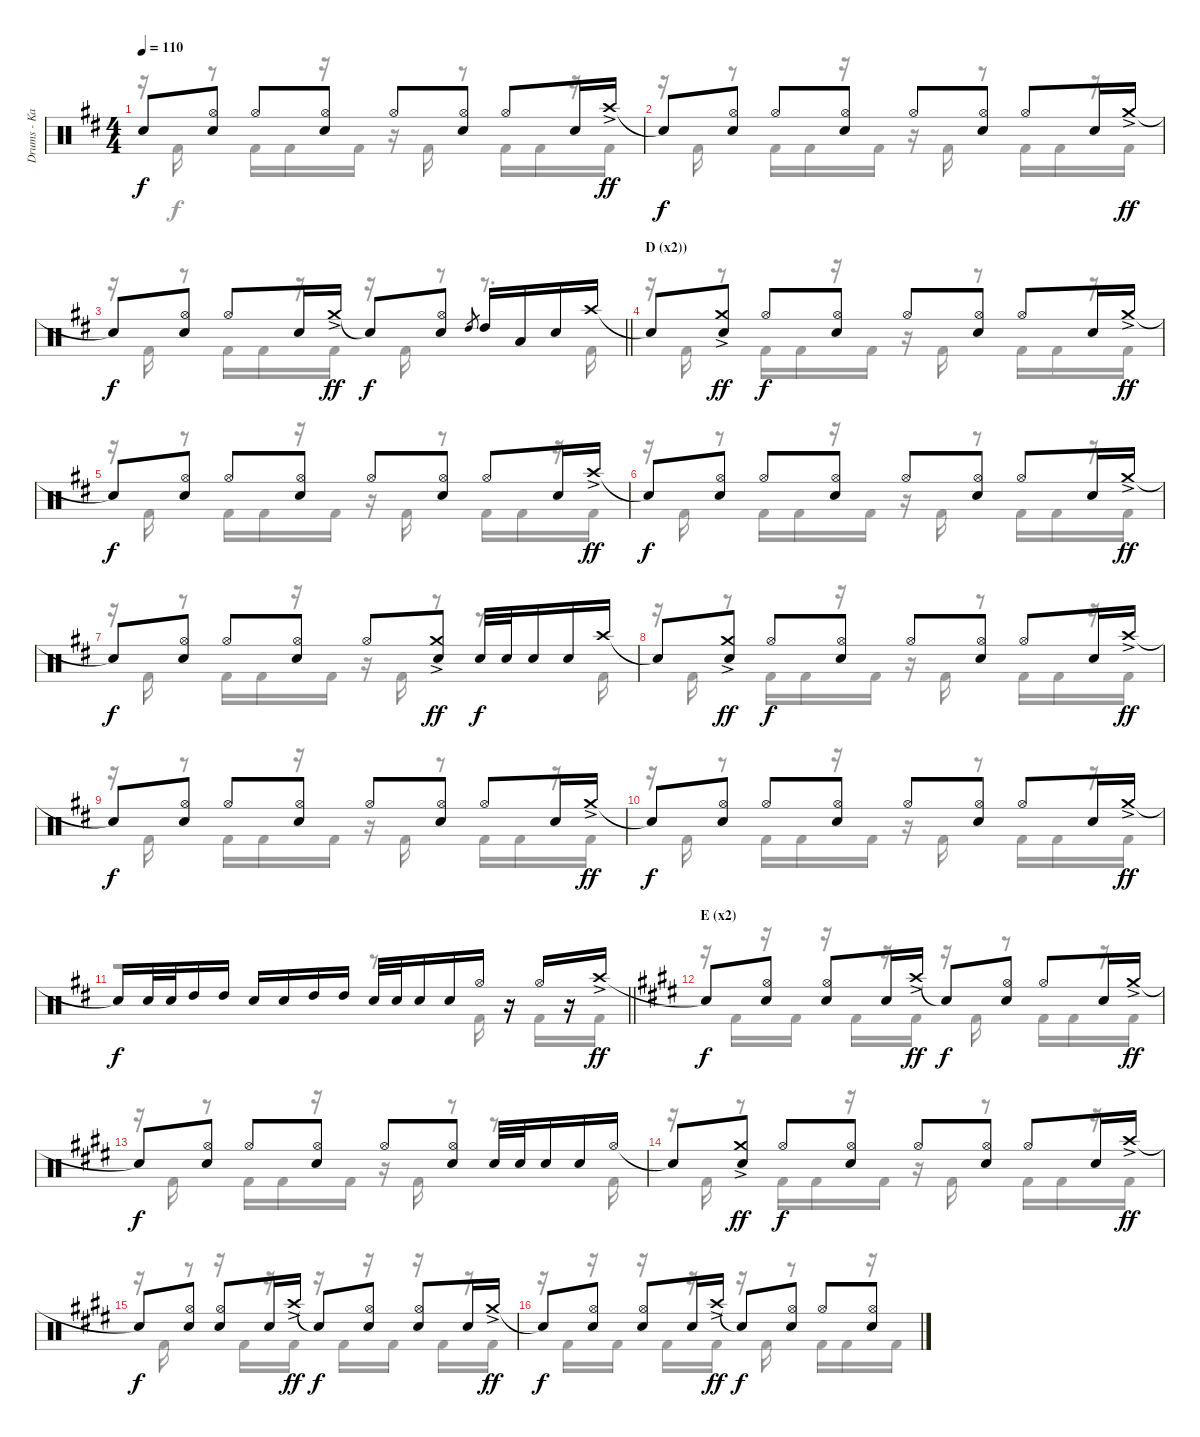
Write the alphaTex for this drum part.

\track ("Drums - Kai" "Drums - Ka") {instrument percussion}
\staff {score}
\articulation defaults
\voice
\ts (4 4)
\tempo 110
\clef neutral
\ks d "Snare (hit)"{t}.8{dy f}
("Hi-Hat (open)" "Snare (hit) 2").8 "Hi-Hat (open)".8 ("Hi-Hat (open)" "Snare (hit) 2").8 "Hi-Hat (open)".8 ("Hi-Hat (open)" "Snare (hit) 2").8 "Hi-Hat (open)".8 "Snare (hit) 2".16 "Crash high (hit)"{ac}.16{dy ff} |
"Snare (hit)"{t}.8{dy f} ("Hi-Hat (open)" "Snare (hit) 2").8 "Hi-Hat (open)".8 ("Hi-Hat (open)" "Snare (hit) 2").8 "Hi-Hat (open)".8 ("Hi-Hat (open)" "Snare (hit) 2").8 "Hi-Hat (open)".8 "Snare (hit) 2".16 "Crash medium (hit)"{ac}.16{dy ff} |
\barLineRight lightlight "Snare (hit)"{t}.8{dy f}
("Hi-Hat (open)" "Snare (hit) 2").8 "Hi-Hat (open)".8 "Snare (hit) 2".16 "Crash medium (hit)"{ac}.16{dy ff} "Snare (hit)"{t}.8{dy f} ("Hi-Hat (open)" "Snare (hit) 2").8 "High Tom (hit)".8{gr} "High Tom (hit)".16 "Low Tom (hit)".16 "Snare (hit) 2".16 "Crash high (hit)".16 |
\section ("" "D (x2))")
"Snare (hit)"{t}.8 ("Crash medium (hit)"{ac} "Snare (hit) 2").8{dy ff} "Hi-Hat (open)".8{dy f} ("Hi-Hat (open)" "Snare (hit) 2").8 "Hi-Hat (open)".8 ("Hi-Hat (open)" "Snare (hit) 2").8 "Hi-Hat (open)".8 "Snare (hit) 2".16 "Crash medium (hit)"{ac}.16{dy ff} |
"Snare (hit)"{t}.8{dy f} ("Hi-Hat (open)" "Snare (hit) 2").8 "Hi-Hat (open)".8 ("Hi-Hat (open)" "Snare (hit) 2").8 "Hi-Hat (open)".8 ("Hi-Hat (open)" "Snare (hit) 2").8 "Hi-Hat (open)".8 "Snare (hit) 2".16 "Crash high (hit)"{ac}.16{dy ff} |
"Snare (hit)"{t}.8{dy f} ("Hi-Hat (open)" "Snare (hit) 2").8 "Hi-Hat (open)".8 ("Hi-Hat (open)" "Snare (hit) 2").8 "Hi-Hat (open)".8 ("Hi-Hat (open)" "Snare (hit) 2").8 "Hi-Hat (open)".8 "Snare (hit) 2".16 "Crash medium (hit)"{ac}.16{dy ff} |
"Snare (hit)"{t}.8{dy f} ("Hi-Hat (open)" "Snare (hit) 2").8 "Hi-Hat (open)".8 ("Hi-Hat (open)" "Snare (hit) 2").8 "Hi-Hat (open)".8 ("Crash medium (hit)"{ac} "Snare (hit) 2").8{dy ff} "Snare (hit) 2".32{dy f} "Snare (hit) 2".32 "Snare (hit) 2".16 "Snare (hit) 2".16 "Crash high (hit)".16 |
"Snare (hit)"{t}.8 ("Crash medium (hit)"{ac} "Snare (hit) 2").8{dy ff} "Hi-Hat (open)".8{dy f} ("Hi-Hat (open)" "Snare (hit) 2").8 "Hi-Hat (open)".8 ("Hi-Hat (open)" "Snare (hit) 2").8 "Hi-Hat (open)".8 "Snare (hit) 2".16 "Crash high (hit)"{ac}.16{dy ff} |
"Snare (hit)"{t}.8{dy f} ("Hi-Hat (open)" "Snare (hit) 2").8 "Hi-Hat (open)".8 ("Hi-Hat (open)" "Snare (hit) 2").8 "Hi-Hat (open)".8 ("Hi-Hat (open)" "Snare (hit) 2").8 "Hi-Hat (open)".8 "Snare (hit) 2".16 "Crash medium (hit)"{ac}.16{dy ff} |
"Snare (hit)"{t}.8{dy f} ("Hi-Hat (open)" "Snare (hit) 2").8 "Hi-Hat (open)".8 ("Hi-Hat (open)" "Snare (hit) 2").8 "Hi-Hat (open)".8 ("Hi-Hat (open)" "Snare (hit) 2").8 "Hi-Hat (open)".8 "Snare (hit) 2".16 "Crash medium (hit)"{ac}.16{dy ff} |
\barLineRight lightlight "Snare (hit)"{t}.16{dy f} "Snare (hit) 2".32 "Snare (hit) 2".32 "High Tom (hit)".16 "High Tom (hit)".16 "Snare (hit) 2".16 "Snare (hit) 2".16 "High Tom (hit)".16 "High Tom (hit)".16 "Snare (hit) 2".32 "Snare (hit) 2".32 "Snare (hit) 2".16 "Snare (hit) 2".16 "Hi-Hat (open)".16
r.16 "Hi-Hat (open)".16 r.16 "Crash high (hit)"{ac}.16{dy ff} |
\section ("" "E (x2)")
\ks e "Snare (hit)"{t}.8{dy f}
("Hi-Hat (open)" "Snare (hit) 2").8 ("Hi-Hat (open)" "Snare (hit) 2").8 "Snare (hit) 2".16 "Crash high (hit)"{ac}.16{dy ff} "Snare (hit)"{t}.8{dy f} ("Hi-Hat (open)" "Snare (hit) 2").8 "Hi-Hat (open)".8 "Snare (hit) 2".16 "Crash medium (hit)"{ac}.16{dy ff} |
"Snare (hit)"{t}.8{dy f} ("Hi-Hat (open)" "Snare (hit) 2").8 "Hi-Hat (open)".8 ("Hi-Hat (open)" "Snare (hit) 2").8 "Hi-Hat (open)".8 ("Hi-Hat (open)" "Snare (hit) 2").8 "Snare (hit) 2".32 "Snare (hit) 2".32 "Snare (hit) 2".16 "Snare (hit) 2".16 "Hi-Hat (open)".16 |
"Snare (hit)"{t}.8 ("Crash medium (hit)"{ac} "Snare (hit) 2").8{dy ff} "Hi-Hat (open)".8{dy f} ("Hi-Hat (open)" "Snare (hit) 2").8 "Hi-Hat (open)".8 ("Hi-Hat (open)" "Snare (hit) 2").8 "Hi-Hat (open)".8 "Snare (hit) 2".16 "Crash high (hit)"{ac}.16{dy ff} |
"Snare (hit)"{t}.8{dy f} ("Hi-Hat (open)" "Snare (hit) 2").8 ("Hi-Hat (open)" "Snare (hit) 2").8 "Snare (hit) 2".16 "Crash high (hit)"{ac}.16{dy ff} "Snare (hit)"{t}.8{dy f} ("Hi-Hat (open)" "Snare (hit) 2").8 ("Hi-Hat (open)" "Snare (hit) 2").8 "Snare (hit) 2".16 "Crash medium (hit)"{ac}.16{dy ff} |
"Snare (hit)"{t}.8{dy f} ("Hi-Hat (open)" "Snare (hit) 2").8 ("Hi-Hat (open)" "Snare (hit) 2").8 "Snare (hit) 2".16 "Crash high (hit)"{ac}.16{dy ff} "Snare (hit)"{t}.8{dy f} ("Hi-Hat (open)" "Snare (hit) 2").8 "Hi-Hat (open)".8 ("Hi-Hat (open)" "Snare (hit) 2").8
\voice
\clef neutral
\ottava regular
\simile none
\ks d
r.16{dy f} "Kick (hit) 2".16 r.8 "Kick (hit) 2".16 "Kick (hit) 2".16 r.16 "Kick (hit) 2".16 r.16 "Kick (hit) 2".16 r.8 "Kick (hit) 2".16 "Kick (hit) 2".16 r.16 "Kick (hit) 2".16 |
r.16 "Kick (hit) 2".16 r.8 "Kick (hit) 2".16 "Kick (hit) 2".16 r.16 "Kick (hit) 2".16 r.16 "Kick (hit) 2".16 r.8 "Kick (hit) 2".16 "Kick (hit) 2".16 r.16 "Kick (hit) 2".16 |
\barLineRight lightlight
r.16 "Kick (hit) 2".16 r.8 "Kick (hit) 2".16 "Kick (hit) 2".16 r.16 "Kick (hit) 2".16 r.16 "Kick (hit) 2".16 r.8 r.8{d} "Kick (hit) 2".16 |
r.16 "Kick (hit) 2".16 r.8 "Kick (hit) 2".16 "Kick (hit) 2".16 r.16 "Kick (hit) 2".16 r.16 "Kick (hit) 2".16 r.8 "Kick (hit) 2".16 "Kick (hit) 2".16 r.16 "Kick (hit) 2".16 |
r.16 "Kick (hit) 2".16 r.8 "Kick (hit) 2".16 "Kick (hit) 2".16 r.16 "Kick (hit) 2".16 r.16 "Kick (hit) 2".16 r.8 "Kick (hit) 2".16 "Kick (hit) 2".16 r.16 "Kick (hit) 2".16 |
r.16 "Kick (hit) 2".16 r.8 "Kick (hit) 2".16 "Kick (hit) 2".16 r.16 "Kick (hit) 2".16 r.16 "Kick (hit) 2".16 r.8 "Kick (hit) 2".16 "Kick (hit) 2".16 r.16 "Kick (hit) 2".16 |
r.16 "Kick (hit) 2".16 r.8 "Kick (hit) 2".16 "Kick (hit) 2".16 r.16 "Kick (hit) 2".16 r.16 "Kick (hit) 2".16 r.8 r.8{d} "Kick (hit) 2".16 |
r.16 "Kick (hit) 2".16 r.8 "Kick (hit) 2".16 "Kick (hit) 2".16 r.16 "Kick (hit) 2".16 r.16 "Kick (hit) 2".16 r.8 "Kick (hit) 2".16 "Kick (hit) 2".16 r.16 "Kick (hit) 2".16 |
r.16 "Kick (hit) 2".16 r.8 "Kick (hit) 2".16 "Kick (hit) 2".16 r.16 "Kick (hit) 2".16 r.16 "Kick (hit) 2".16 r.8 "Kick (hit) 2".16 "Kick (hit) 2".16 r.16 "Kick (hit) 2".16 |
r.16 "Kick (hit) 2".16 r.8 "Kick (hit) 2".16 "Kick (hit) 2".16 r.16 "Kick (hit) 2".16 r.16 "Kick (hit) 2".16 r.8 "Kick (hit) 2".16 "Kick (hit) 2".16 r.16 "Kick (hit) 2".16 |
\barLineRight lightlight
r.2 r.8{d} "Kick (hit) 2".16 r.16 "Kick (hit) 2".16 r.16 "Kick (hit) 2".16 |
\ks e
r.16 "Kick (hit) 2".16 r.16 "Kick (hit) 2".16 r.16 "Kick (hit) 2".16 r.16 "Kick (hit) 2".16 r.16 "Kick (hit) 2".16 r.8 "Kick (hit) 2".16 "Kick (hit) 2".16 r.16 "Kick (hit) 2".16 |
r.16 "Kick (hit) 2".16 r.8 "Kick (hit) 2".16 "Kick (hit) 2".16 r.16 "Kick (hit) 2".16 r.16 "Kick (hit) 2".16 r.8 r.8{d} "Kick (hit) 2".16 |
r.16 "Kick (hit) 2".16 r.8 "Kick (hit) 2".16 "Kick (hit) 2".16 r.16 "Kick (hit) 2".16 r.16 "Kick (hit) 2".16 r.8 "Kick (hit) 2".16 "Kick (hit) 2".16 r.16 "Kick (hit) 2".16 |
r.16 "Kick (hit) 2".16 r.8 r.16 "Kick (hit) 2".16 r.16 "Kick (hit) 2".16 r.16 "Kick (hit) 2".16 r.16 "Kick (hit) 2".16 r.16 "Kick (hit) 2".16 r.16 "Kick (hit) 2".16 |
r.16 "Kick (hit) 2".16 r.16 "Kick (hit) 2".16 r.16 "Kick (hit) 2".16 r.16 "Kick (hit) 2".16 r.16 "Kick (hit) 2".16 r.8 "Kick (hit) 2".16 "Kick (hit) 2".16 r.16 "Kick (hit) 2".16
